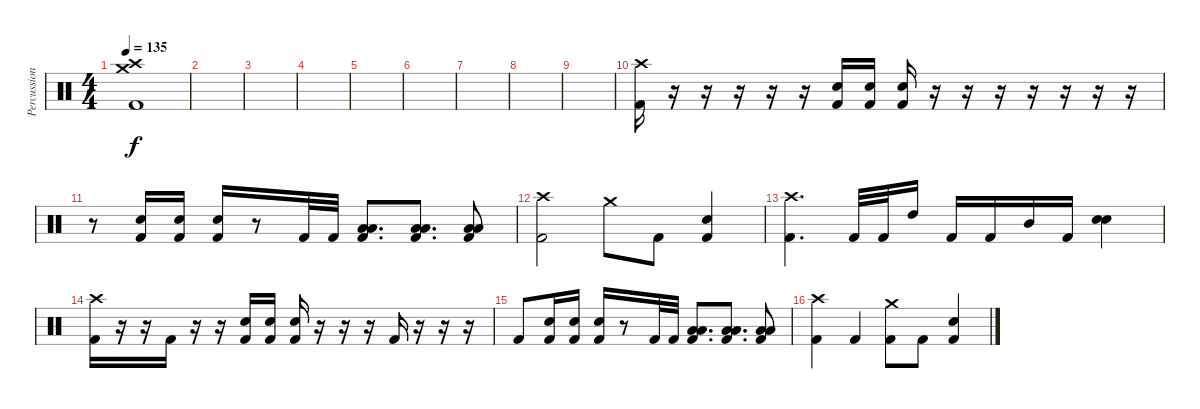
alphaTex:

\track ("Percussion" "Percussion") {instrument percussion}
\staff {score}
\articulation defaults
\ts (4 4)
\tempo 135
\clef neutral
\ks c
("Crash medium (hit)" "Crash high (hit)" "Kick (hit) 2").1{dy f} |
|
|
|
|
|
|
|
|
("Crash high (hit)" "Kick (hit) 2").16 r.16 r.16 r.16 r.16 r.16 ("Electric Snare (hit)" "Kick (hit) 2").16 ("Electric Snare (hit)" "Kick (hit) 2").16 ("Electric Snare (hit)" "Kick (hit) 2").16 r.16 r.16 r.16 r.16 r.16 r.16 r.16 |
r.8 ("Electric Snare (hit)" "Kick (hit) 2").16 ("Electric Snare (hit)" "Kick (hit) 2").16 ("Electric Snare (hit)" "Kick (hit) 2").16 r.8 "Kick (hit) 2".32 "Kick (hit) 2".32 ("Low Floor Tom (hit)" "Low Floor Tom (hit)" "Kick (hit) 2").8{d} ("Low Floor Tom (hit)" "Low Floor Tom (hit)" "Kick (hit) 2").8{d} ("Low Floor Tom (hit)" "Low Floor Tom (hit)" "Kick (hit) 2").8 |
("Crash high (hit)" "Kick (hit) 2").2 "Crash medium (hit)".8 "Kick (hit) 2".8 ("Electric Snare (hit)" "Kick (hit) 2").4 |
("Crash high (hit)" "Kick (hit) 2").4{d} "Kick (hit) 2".32 "Kick (hit) 2".32 "High Tom (hit)".16 "Kick (hit) 2".16 "Kick (hit) 2".16 "Mid Tom (hit)".16 "Kick (hit) 2".16 ("Electric Snare (hit)" "Electric Snare (hit)").4 |
("Crash high (hit)" "Kick (hit) 2").16 r.16 r.16 "Kick (hit) 2".16 r.16 r.16 ("Electric Snare (hit)" "Kick (hit) 2").16 ("Electric Snare (hit)" "Kick (hit) 2").16 ("Electric Snare (hit)" "Kick (hit) 2").16 r.16 r.16 r.16 "Kick (hit) 2".16 r.16 r.16 r.16 |
"Kick (hit) 2".8 ("Electric Snare (hit)" "Kick (hit) 2").16 ("Electric Snare (hit)" "Kick (hit) 2").16 ("Electric Snare (hit)" "Kick (hit) 2").16 r.8 "Kick (hit) 2".32 "Kick (hit) 2".32 ("Low Floor Tom (hit)" "Low Floor Tom (hit)" "Kick (hit) 2").8{d} ("Low Floor Tom (hit)" "Low Floor Tom (hit)" "Kick (hit) 2").8{d} ("Low Floor Tom (hit)" "Low Floor Tom (hit)" "Kick (hit) 2").8 |
("Crash high (hit)" "Kick (hit) 2").4 "Kick (hit) 2".4 ("Crash medium (hit)" "Kick (hit) 2").8 "Kick (hit) 2".8 ("Electric Snare (hit)" "Kick (hit) 2").4
